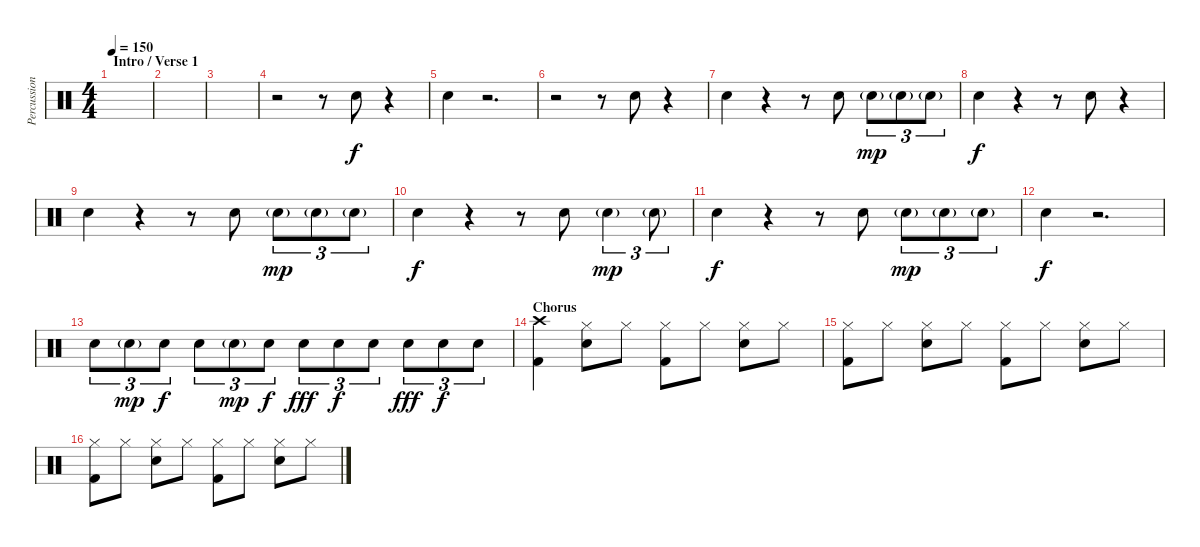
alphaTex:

\track ("Percussions" "Percussion") {instrument percussion}
\staff {score}
\articulation defaults
\ts (4 4)
\section ("" "Intro / Verse 1")
\tempo 150
\clef neutral
\ks c
|
|
|
r.2 r.8 "Snare (hit) 2".8 r.4 |
"Snare (hit) 2".4 r.2{d} |
r.2 r.8 "Snare (hit) 2".8 r.4 |
"Snare (hit) 2".4 r.4 r.8 "Snare (hit) 2".8 "Snare (hit) 2"{g}.8{tu (3 2) dy mp} "Snare (hit) 2"{g}.8{tu (3 2)} "Snare (hit) 2"{g}.8{tu (3 2)} |
"Snare (hit) 2".4{dy f} r.4 r.8 "Snare (hit) 2".8 r.4 |
"Snare (hit) 2".4 r.4 r.8 "Snare (hit) 2".8 "Snare (hit) 2"{g}.8{tu (3 2) dy mp} "Snare (hit) 2"{g}.8{tu (3 2)} "Snare (hit) 2"{g}.8{tu (3 2)} |
"Snare (hit) 2".4{dy f} r.4 r.8 "Snare (hit) 2".8 "Snare (hit) 2"{g}.4{tu (3 2) dy mp} "Snare (hit) 2"{g}.8{tu (3 2)} |
"Snare (hit) 2".4{dy f} r.4 r.8 "Snare (hit) 2".8 "Snare (hit) 2"{g}.8{tu (3 2) dy mp} "Snare (hit) 2"{g}.8{tu (3 2)} "Snare (hit) 2"{g}.8{tu (3 2)} |
"Snare (hit) 2".4{dy f} r.2{d} |
"Snare (hit) 2".8{tu (3 2)} "Snare (hit) 2"{g}.8{tu (3 2) dy mp} "Snare (hit) 2".8{tu (3 2) dy f} "Snare (hit) 2".8{tu (3 2)} "Snare (hit) 2"{g}.8{tu (3 2) dy mp} "Snare (hit) 2".8{tu (3 2) dy f} "Snare (hit) 2".8{tu (3 2) dy fff} "Snare (hit) 2".8{tu (3 2) dy f} "Snare (hit) 2".8{tu (3 2)} "Snare (hit) 2".8{tu (3 2) dy fff} "Snare (hit) 2".8{tu (3 2) dy f} "Snare (hit) 2".8{tu (3 2)} |
\section ("" "Chorus")
("Crash high (hit)" "Kick (hit) 2").4 ("Hi-Hat (closed)" "Snare (hit) 2").8 "Hi-Hat (closed)".8 ("Hi-Hat (closed)" "Kick (hit) 2").8 "Hi-Hat (closed)".8 ("Hi-Hat (closed)" "Snare (hit) 2").8 "Hi-Hat (closed)".8 |
("Hi-Hat (closed)" "Kick (hit) 2").8 "Hi-Hat (closed)".8 ("Hi-Hat (closed)" "Snare (hit) 2").8 "Hi-Hat (closed)".8 ("Hi-Hat (closed)" "Kick (hit) 2").8 "Hi-Hat (closed)".8 ("Hi-Hat (closed)" "Snare (hit) 2").8 "Hi-Hat (closed)".8 |
("Hi-Hat (closed)" "Kick (hit) 2").8 "Hi-Hat (closed)".8 ("Hi-Hat (closed)" "Snare (hit) 2").8 "Hi-Hat (closed)".8 ("Hi-Hat (closed)" "Kick (hit) 2").8 "Hi-Hat (closed)".8 ("Hi-Hat (closed)" "Snare (hit) 2").8 "Hi-Hat (closed)".8
